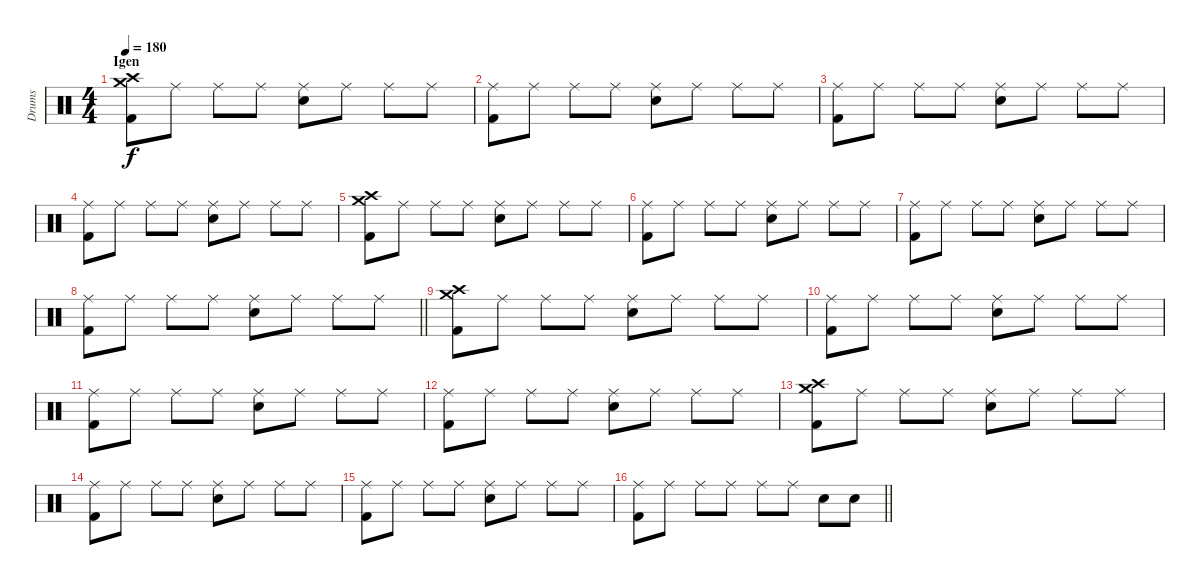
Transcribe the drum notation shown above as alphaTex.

\track ("Drums" "Drums") {instrument percussion}
\staff {score}
\articulation defaults
\ts (4 4)
\section ("" "Igen")
\tempo 180
\clef neutral
\ks c
("Crash medium (hit)" "Crash high (hit)" "Kick (hit) 2").8{dy f} "Ride (middle)".8 "Ride (middle)".8 "Ride (middle)".8 ("Ride (middle)" "Snare (hit) 2").8 "Ride (middle)".8 "Ride (middle)".8 "Ride (middle)".8 |
("Ride (middle)" "Kick (hit) 2").8 "Ride (middle)".8 "Ride (middle)".8 "Ride (middle)".8 ("Ride (middle)" "Snare (hit) 2").8 "Ride (middle)".8 "Ride (middle)".8 "Ride (middle)".8 |
("Ride (middle)" "Kick (hit) 2").8 "Ride (middle)".8 "Ride (middle)".8 "Ride (middle)".8 ("Ride (middle)" "Snare (hit) 2").8 "Ride (middle)".8 "Ride (middle)".8 "Ride (middle)".8 |
("Ride (middle)" "Kick (hit) 2").8 "Ride (middle)".8 "Ride (middle)".8 "Ride (middle)".8 ("Ride (middle)" "Snare (hit) 2").8 "Ride (middle)".8 "Ride (middle)".8 "Ride (middle)".8 |
("Crash medium (hit)" "Crash high (hit)" "Kick (hit) 2").8 "Ride (middle)".8 "Ride (middle)".8 "Ride (middle)".8 ("Ride (middle)" "Snare (hit) 2").8 "Ride (middle)".8 "Ride (middle)".8 "Ride (middle)".8 |
("Ride (middle)" "Kick (hit) 2").8 "Ride (middle)".8 "Ride (middle)".8 "Ride (middle)".8 ("Ride (middle)" "Snare (hit) 2").8 "Ride (middle)".8 "Ride (middle)".8 "Ride (middle)".8 |
("Ride (middle)" "Kick (hit) 2").8 "Ride (middle)".8 "Ride (middle)".8 "Ride (middle)".8 ("Ride (middle)" "Snare (hit) 2").8 "Ride (middle)".8 "Ride (middle)".8 "Ride (middle)".8 |
\barLineRight lightlight
("Ride (middle)" "Kick (hit) 2").8 "Ride (middle)".8 "Ride (middle)".8 "Ride (middle)".8 ("Ride (middle)" "Snare (hit) 2").8 "Ride (middle)".8 "Ride (middle)".8 "Ride (middle)".8 |
("Crash medium (hit)" "Crash high (hit)" "Kick (hit) 2").8 "Ride (middle)".8 "Ride (middle)".8 "Ride (middle)".8 ("Ride (middle)" "Snare (hit) 2").8 "Ride (middle)".8 "Ride (middle)".8 "Ride (middle)".8 |
("Ride (middle)" "Kick (hit) 2").8 "Ride (middle)".8 "Ride (middle)".8 "Ride (middle)".8 ("Ride (middle)" "Snare (hit) 2").8 "Ride (middle)".8 "Ride (middle)".8 "Ride (middle)".8 |
("Ride (middle)" "Kick (hit) 2").8 "Ride (middle)".8 "Ride (middle)".8 "Ride (middle)".8 ("Ride (middle)" "Snare (hit) 2").8 "Ride (middle)".8 "Ride (middle)".8 "Ride (middle)".8 |
("Ride (middle)" "Kick (hit) 2").8 "Ride (middle)".8 "Ride (middle)".8 "Ride (middle)".8 ("Ride (middle)" "Snare (hit) 2").8 "Ride (middle)".8 "Ride (middle)".8 "Ride (middle)".8 |
("Crash medium (hit)" "Crash high (hit)" "Kick (hit) 2").8 "Ride (middle)".8 "Ride (middle)".8 "Ride (middle)".8 ("Ride (middle)" "Snare (hit) 2").8 "Ride (middle)".8 "Ride (middle)".8 "Ride (middle)".8 |
("Ride (middle)" "Kick (hit) 2").8 "Ride (middle)".8 "Ride (middle)".8 "Ride (middle)".8 ("Ride (middle)" "Snare (hit) 2").8 "Ride (middle)".8 "Ride (middle)".8 "Ride (middle)".8 |
("Ride (middle)" "Kick (hit) 2").8 "Ride (middle)".8 "Ride (middle)".8 "Ride (middle)".8 ("Ride (middle)" "Snare (hit) 2").8 "Ride (middle)".8 "Ride (middle)".8 "Ride (middle)".8 |
\barLineRight lightlight
("Ride (middle)" "Kick (hit) 2").8 "Ride (middle)".8 "Ride (middle)".8 "Ride (middle)".8 "Ride (middle)".8 "Ride (middle)".8 "Snare (hit) 2".8 "Snare (hit) 2".8
